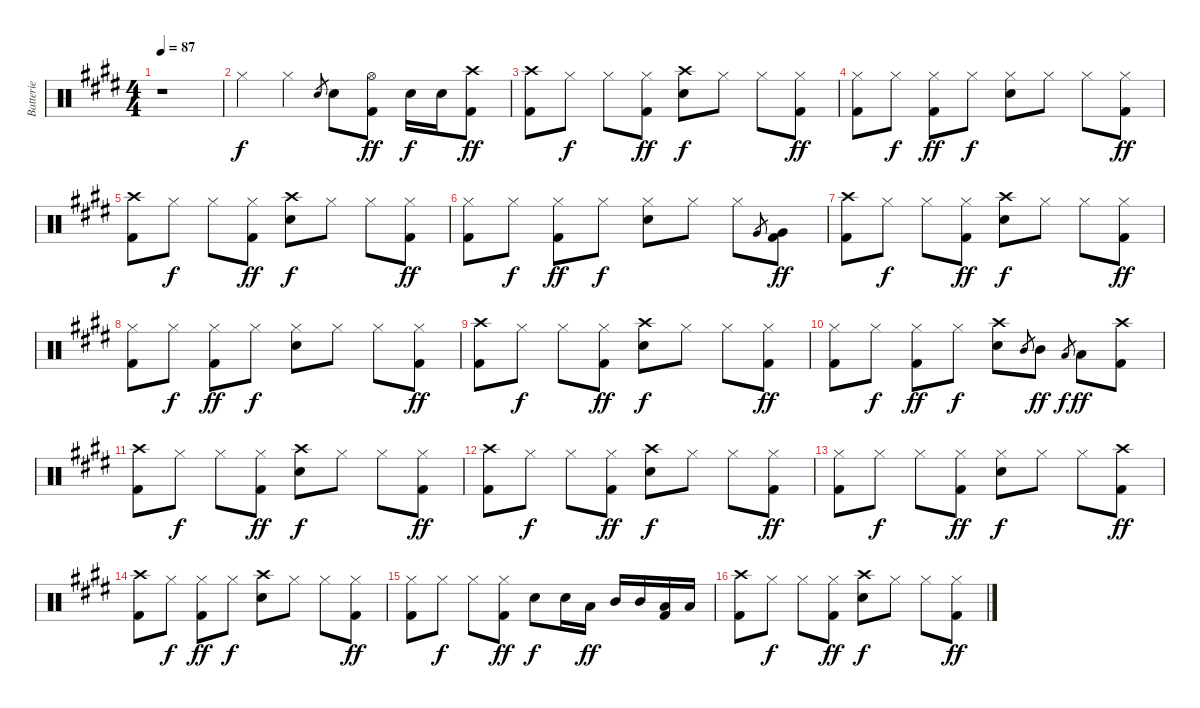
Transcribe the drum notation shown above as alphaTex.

\track ("Batterie" "Batterie") {instrument percussion}
\staff {score}
\articulation defaults
\ts (4 4)
\tempo 87
\clef neutral
\ks e
r.1{dy f} |
"Hi-Hat (closed)".4 "Hi-Hat (closed)".4 "Snare (hit) 2".8{gr} "Snare (hit) 2".8 ("Hi-Hat (open)" "Kick (hit) 2").8{dy ff} "Snare (hit) 2".16{dy f} "Snare (hit) 2".16 ("Crash high (hit)" "Kick (hit) 2").8{dy ff} |
("Crash high (hit)" "Kick (hit) 2").8 "Hi-Hat (closed)".8{dy f} "Hi-Hat (closed)".8 ("Hi-Hat (closed)" "Kick (hit) 2").8{dy ff} ("Crash high (hit)" "Snare (hit) 2").8{dy f} "Hi-Hat (closed)".8 "Hi-Hat (closed)".8 ("Hi-Hat (closed)" "Kick (hit) 2").8{dy ff} |
("Hi-Hat (closed)" "Kick (hit) 2").8 "Hi-Hat (closed)".8{dy f} ("Hi-Hat (closed)" "Kick (hit) 2").8{dy ff} "Hi-Hat (closed)".8{dy f} ("Hi-Hat (closed)" "Snare (hit) 2").8 "Hi-Hat (closed)".8 "Hi-Hat (closed)".8 ("Hi-Hat (closed)" "Kick (hit) 2").8{dy ff} |
("Crash high (hit)" "Kick (hit) 2").8 "Hi-Hat (closed)".8{dy f} "Hi-Hat (closed)".8 ("Hi-Hat (closed)" "Kick (hit) 2").8{dy ff} ("Crash high (hit)" "Snare (hit) 2").8{dy f} "Hi-Hat (closed)".8 "Hi-Hat (closed)".8 ("Hi-Hat (closed)" "Kick (hit) 2").8{dy ff} |
("Hi-Hat (closed)" "Kick (hit) 2").8 "Hi-Hat (closed)".8{dy f} ("Hi-Hat (closed)" "Kick (hit) 2").8{dy ff} "Hi-Hat (closed)".8{dy f} ("Hi-Hat (closed)" "Snare (hit) 2").8 "Hi-Hat (closed)".8 "Hi-Hat (closed)".8 "Very Low Tom (hit)".8{gr} ("Very Low Tom (hit)" "Kick (hit) 2").8{dy ff} |
("Crash high (hit)" "Kick (hit) 2").8 "Hi-Hat (closed)".8{dy f} "Hi-Hat (closed)".8 ("Hi-Hat (closed)" "Kick (hit) 2").8{dy ff} ("Crash high (hit)" "Snare (hit) 2").8{dy f} "Hi-Hat (closed)".8 "Hi-Hat (closed)".8 ("Hi-Hat (closed)" "Kick (hit) 2").8{dy ff} |
("Hi-Hat (closed)" "Kick (hit) 2").8 "Hi-Hat (closed)".8{dy f} ("Hi-Hat (closed)" "Kick (hit) 2").8{dy ff} "Hi-Hat (closed)".8{dy f} ("Hi-Hat (closed)" "Snare (hit) 2").8 "Hi-Hat (closed)".8 "Hi-Hat (closed)".8 ("Hi-Hat (closed)" "Kick (hit) 2").8{dy ff} |
("Crash high (hit)" "Kick (hit) 2").8 "Hi-Hat (closed)".8{dy f} "Hi-Hat (closed)".8 ("Hi-Hat (closed)" "Kick (hit) 2").8{dy ff} ("Crash high (hit)" "Snare (hit) 2").8{dy f} "Hi-Hat (closed)".8 "Hi-Hat (closed)".8 ("Hi-Hat (closed)" "Kick (hit) 2").8{dy ff} |
("Hi-Hat (closed)" "Kick (hit) 2").8 "Hi-Hat (closed)".8{dy f} ("Hi-Hat (closed)" "Kick (hit) 2").8{dy ff} "Hi-Hat (closed)".8{dy f} ("Crash high (hit)" "Snare (hit) 2").8 "Mid Tom (hit)".8{gr} "Mid Tom (hit)".8{dy ff} "Low Tom (hit)".8{gr dy f} "Low Tom (hit)".8{dy ff} ("Crash high (hit)" "Kick (hit) 2").8 |
("Crash high (hit)" "Kick (hit) 2").8 "Hi-Hat (closed)".8{dy f} "Hi-Hat (closed)".8 ("Hi-Hat (closed)" "Kick (hit) 2").8{dy ff} ("Crash high (hit)" "Snare (hit) 2").8{dy f} "Hi-Hat (closed)".8 "Hi-Hat (closed)".8 ("Hi-Hat (closed)" "Kick (hit) 2").8{dy ff} |
("Crash high (hit)" "Kick (hit) 2").8 "Hi-Hat (closed)".8{dy f} "Hi-Hat (closed)".8 ("Hi-Hat (closed)" "Kick (hit) 2").8{dy ff} ("Crash high (hit)" "Snare (hit) 2").8{dy f} "Hi-Hat (closed)".8 "Hi-Hat (closed)".8 ("Hi-Hat (closed)" "Kick (hit) 2").8{dy ff} |
("Hi-Hat (closed)" "Kick (hit) 2").8 "Hi-Hat (closed)".8{dy f} "Hi-Hat (closed)".8 ("Hi-Hat (closed)" "Kick (hit) 2").8{dy ff} ("Hi-Hat (closed)" "Snare (hit) 2").8{dy f} "Hi-Hat (closed)".8 "Hi-Hat (closed)".8 ("Crash high (hit)" "Kick (hit) 2").8{dy ff} |
("Crash high (hit)" "Kick (hit) 2").8 "Hi-Hat (closed)".8{dy f} ("Hi-Hat (closed)" "Kick (hit) 2").8{dy ff} "Hi-Hat (closed)".8{dy f} ("Crash high (hit)" "Snare (hit) 2").8 "Hi-Hat (closed)".8 "Hi-Hat (closed)".8 ("Hi-Hat (closed)" "Kick (hit) 2").8{dy ff} |
("Hi-Hat (closed)" "Kick (hit) 2").8 "Hi-Hat (closed)".8{dy f} "Hi-Hat (closed)".8 ("Hi-Hat (closed)" "Kick (hit) 2").8{dy ff} "Snare (hit) 2".8{dy f} "Snare (hit) 2".16 "Low Tom (hit)".16{dy ff} "Mid Tom (hit)".16 "Mid Tom (hit)".16 ("Low Tom (hit)" "Kick (hit) 2").16 "Low Tom (hit)".16 |
("Crash high (hit)" "Kick (hit) 2").8 "Hi-Hat (closed)".8{dy f} "Hi-Hat (closed)".8 ("Hi-Hat (closed)" "Kick (hit) 2").8{dy ff} ("Crash high (hit)" "Snare (hit) 2").8{dy f} "Hi-Hat (closed)".8 "Hi-Hat (closed)".8 ("Hi-Hat (closed)" "Kick (hit) 2").8{dy ff}
